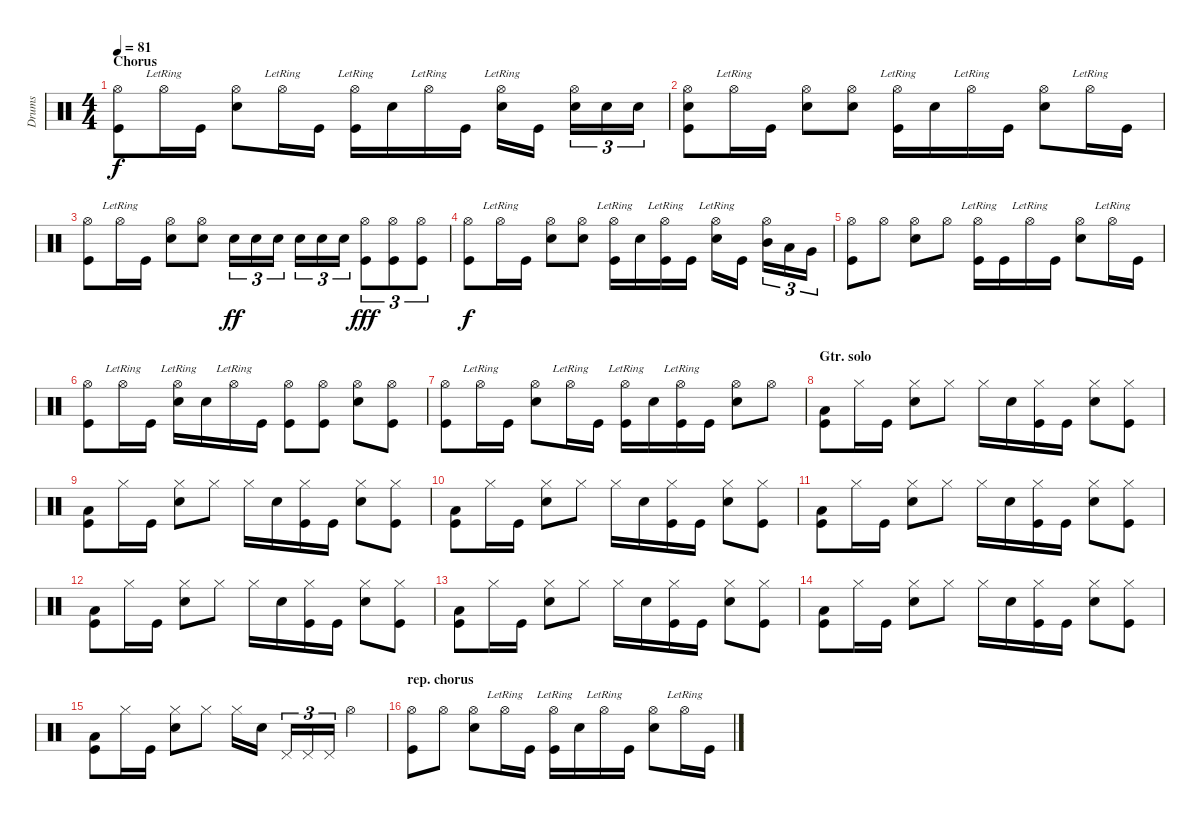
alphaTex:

\track ("Drums" "Drums") {instrument percussion}
\staff {score}
\articulation defaults
\ts (4 4)
\section ("" "Chorus")
\tempo 81
\clef neutral
\ks c
("Hi-Hat (open)" "Kick (hit)").8{dy f} "Hi-Hat (open)"{lr}.16 "Kick (hit)".16 ("Hi-Hat (open)" "Snare (hit) 2").8 "Hi-Hat (open)"{lr}.16 "Kick (hit)".16 ("Hi-Hat (open)"{lr} "Kick (hit)").16 "Snare (hit) 2".16 "Hi-Hat (open)"{lr}.16 "Kick (hit)".16 ("Hi-Hat (open)"{lr} "Snare (hit) 2").16 "Kick (hit)".16 ("Hi-Hat (open)" "Snare (hit) 2").16{tu (3 2)} "Snare (hit) 2".16{tu (3 2)} "Snare (hit) 2".16{tu (3 2)} |
("Hi-Hat (open)" "Snare (hit) 2" "Kick (hit)").8 "Hi-Hat (open)"{lr}.16 "Kick (hit)".16 ("Hi-Hat (open)" "Snare (hit) 2").8 ("Hi-Hat (open)" "Snare (hit) 2").8 ("Hi-Hat (open)"{lr} "Kick (hit)").16 "Snare (hit) 2".16 "Hi-Hat (open)"{lr}.16 "Kick (hit)".16 ("Hi-Hat (open)" "Snare (hit) 2").8 "Hi-Hat (open)"{lr}.16 "Kick (hit)".16 |
("Hi-Hat (open)" "Kick (hit)").8 "Hi-Hat (open)"{lr}.16 "Kick (hit)".16 ("Hi-Hat (open)" "Snare (hit) 2").8 ("Hi-Hat (open)" "Snare (hit) 2").8 "Snare (hit) 2".16{tu (3 2) dy ff} "Snare (hit) 2".16{tu (3 2)} "Snare (hit) 2".16{tu (3 2)} "Snare (hit) 2".16{tu (3 2)} "Snare (hit) 2".16{tu (3 2)} "Snare (hit) 2".16{tu (3 2)} ("Hi-Hat (open)" "Kick (hit)").8{tu (3 2) dy fff} ("Hi-Hat (open)" "Kick (hit)").8{tu (3 2)} ("Hi-Hat (open)" "Kick (hit)").8{tu (3 2)} |
("Hi-Hat (open)" "Kick (hit)").8{dy f} "Hi-Hat (open)"{lr}.16 "Kick (hit)".16 ("Hi-Hat (open)" "Snare (hit) 2").8 ("Hi-Hat (open)" "Snare (hit) 2").8 ("Hi-Hat (open)"{lr} "Kick (hit)").16 "Snare (hit) 2".16 ("Hi-Hat (open)"{lr} "Kick (hit)").16 "Kick (hit)".16 ("Hi-Hat (open)"{lr} "Snare (hit) 2").16 "Kick (hit)".16 ("Hi-Hat (open)" "Mid Tom (hit)").16{tu (3 2)} "Low Tom (hit)".16{tu (3 2)} "Very Low Tom (hit)".16{tu (3 2)} |
("Hi-Hat (open)" "Kick (hit)").8 "Hi-Hat (open)".8 ("Hi-Hat (open)" "Snare (hit) 2").8 "Hi-Hat (open)".8 ("Hi-Hat (open)"{lr} "Kick (hit)").16 "Kick (hit)".16 "Hi-Hat (open)"{lr}.16 "Kick (hit)".16 ("Hi-Hat (open)" "Snare (hit) 2").8 "Hi-Hat (open)"{lr}.16 "Kick (hit)".16 |
("Hi-Hat (open)" "Kick (hit)").8 "Hi-Hat (open)"{lr}.16 "Kick (hit)".16 ("Hi-Hat (open)"{lr} "Snare (hit) 2").16 "Snare (hit) 2".16 "Hi-Hat (open)"{lr}.16 "Kick (hit)".16 ("Hi-Hat (open)" "Kick (hit)").8 ("Hi-Hat (open)" "Kick (hit)").8 ("Hi-Hat (open)" "Snare (hit) 2").8 ("Hi-Hat (open)" "Kick (hit)").8 |
("Hi-Hat (open)" "Kick (hit)").8 "Hi-Hat (open)"{lr}.16 "Kick (hit)".16 ("Hi-Hat (open)" "Snare (hit) 2").8 "Hi-Hat (open)"{lr}.16 "Kick (hit)".16 ("Hi-Hat (open)"{lr} "Kick (hit)").16 "Snare (hit) 2".16 ("Hi-Hat (open)"{lr} "Kick (hit)").16 "Kick (hit)".16 ("Hi-Hat (open)" "Snare (hit) 2").8 "Hi-Hat (open)".8 |
\section ("" "Gtr. solo")
("Low Floor Tom (hit)" "Kick (hit)").8 "Hi-Hat (closed)".16 "Kick (hit)".16 ("Hi-Hat (closed)" "Electric Snare (hit)").8 "Hi-Hat (closed)".8 "Hi-Hat (closed)".16 "Electric Snare (hit)".16 ("Hi-Hat (closed)" "Kick (hit)").16 "Kick (hit)".16 ("Hi-Hat (closed)" "Electric Snare (hit)").8 ("Hi-Hat (closed)" "Kick (hit)").8 |
("Low Floor Tom (hit)" "Kick (hit)").8 "Hi-Hat (closed)".16 "Kick (hit)".16 ("Hi-Hat (closed)" "Electric Snare (hit)").8 "Hi-Hat (closed)".8 "Hi-Hat (closed)".16 "Electric Snare (hit)".16 ("Hi-Hat (closed)" "Kick (hit)").16 "Kick (hit)".16 ("Hi-Hat (closed)" "Electric Snare (hit)").8 ("Hi-Hat (closed)" "Kick (hit)").8 |
("Low Floor Tom (hit)" "Kick (hit)").8 "Hi-Hat (closed)".16 "Kick (hit)".16 ("Hi-Hat (closed)" "Electric Snare (hit)").8 "Hi-Hat (closed)".8 "Hi-Hat (closed)".16 "Electric Snare (hit)".16 ("Hi-Hat (closed)" "Kick (hit)").16 "Kick (hit)".16 ("Hi-Hat (closed)" "Electric Snare (hit)").8 ("Hi-Hat (closed)" "Kick (hit)").8 |
("Low Floor Tom (hit)" "Kick (hit)").8 "Hi-Hat (closed)".16 "Kick (hit)".16 ("Hi-Hat (closed)" "Electric Snare (hit)").8 "Hi-Hat (closed)".8 "Hi-Hat (closed)".16 "Electric Snare (hit)".16 ("Hi-Hat (closed)" "Kick (hit)").16 "Kick (hit)".16 ("Hi-Hat (closed)" "Electric Snare (hit)").8 ("Hi-Hat (closed)" "Kick (hit)").8 |
("Low Floor Tom (hit)" "Kick (hit)").8 "Hi-Hat (closed)".16 "Kick (hit)".16 ("Hi-Hat (closed)" "Electric Snare (hit)").8 "Hi-Hat (closed)".8 "Hi-Hat (closed)".16 "Electric Snare (hit)".16 ("Hi-Hat (closed)" "Kick (hit)").16 "Kick (hit)".16 ("Hi-Hat (closed)" "Electric Snare (hit)").8 ("Hi-Hat (closed)" "Kick (hit)").8 |
("Low Floor Tom (hit)" "Kick (hit)").8 "Hi-Hat (closed)".16 "Kick (hit)".16 ("Hi-Hat (closed)" "Electric Snare (hit)").8 "Hi-Hat (closed)".8 "Hi-Hat (closed)".16 "Electric Snare (hit)".16 ("Hi-Hat (closed)" "Kick (hit)").16 "Kick (hit)".16 ("Hi-Hat (closed)" "Electric Snare (hit)").8 ("Hi-Hat (closed)" "Kick (hit)").8 |
("Low Floor Tom (hit)" "Kick (hit)").8 "Hi-Hat (closed)".16 "Kick (hit)".16 ("Hi-Hat (closed)" "Electric Snare (hit)").8 "Hi-Hat (closed)".8 "Hi-Hat (closed)".16 "Electric Snare (hit)".16 ("Hi-Hat (closed)" "Kick (hit)").16 "Kick (hit)".16 ("Hi-Hat (closed)" "Electric Snare (hit)").8 ("Hi-Hat (closed)" "Kick (hit)").8 |
("Low Floor Tom (hit)" "Kick (hit)").8 "Hi-Hat (closed)".16 "Kick (hit)".16 ("Hi-Hat (closed)" "Electric Snare (hit)").8 "Hi-Hat (closed)".8 "Hi-Hat (closed)".16 "Electric Snare (hit)".16 "Pedal Hi-Hat (hit)".16{tu (3 2)} "Pedal Hi-Hat (hit)".16{tu (3 2)} "Pedal Hi-Hat (hit)".16{tu (3 2)} "Hi-Hat (open)".4 |
\section ("" "rep. chorus")
("Hi-Hat (open)" "Kick (hit)").8 "Hi-Hat (open)".8 ("Hi-Hat (open)" "Snare (hit) 2").8 "Hi-Hat (open)"{lr}.16 "Kick (hit)".16 ("Hi-Hat (open)"{lr} "Kick (hit)").16 "Snare (hit) 2".16 "Hi-Hat (open)"{lr}.16 "Kick (hit)".16 ("Hi-Hat (open)" "Snare (hit) 2").8 "Hi-Hat (open)"{lr}.16 "Kick (hit)".16
